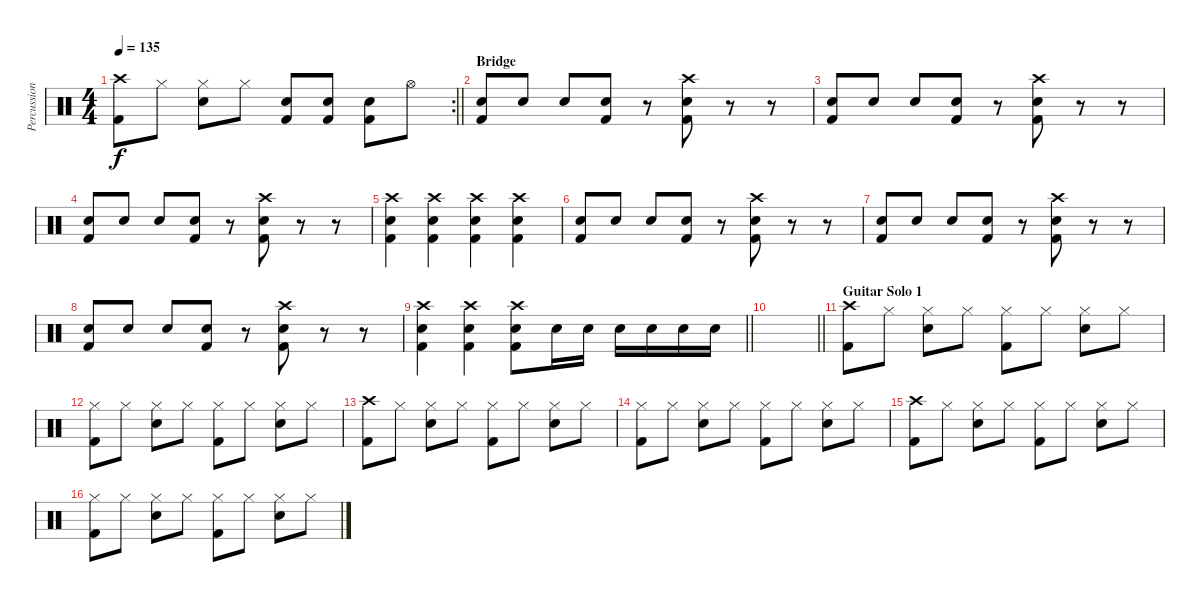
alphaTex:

\track ("Percussion" "Percussion") {instrument percussion}
\staff {score}
\articulation defaults
\rc 2
\ts (4 4)
\tempo 135
\clef neutral
\barLineRight lightlight
\ks c
("Crash high (hit)" "Kick (hit) 2").8{dy f} "Hi-Hat (closed)".8 ("Hi-Hat (closed)" "Electric Snare (hit)").8 "Hi-Hat (closed)".8 ("Electric Snare (hit)" "Kick (hit) 2").8 ("Electric Snare (hit)" "Kick (hit) 2").8 ("Electric Snare (hit)" "Kick (hit) 2").8 "Hi-Hat (open)".8 |
\section ("" "Bridge")
("Electric Snare (hit)" "Kick (hit) 2").8 "Electric Snare (hit)".8 "Electric Snare (hit)".8 ("Electric Snare (hit)" "Kick (hit) 2").8 r.8 ("Crash high (hit)" "Electric Snare (hit)" "Kick (hit) 2").8 r.8 r.8 |
("Electric Snare (hit)" "Kick (hit) 2").8 "Electric Snare (hit)".8 "Electric Snare (hit)".8 ("Electric Snare (hit)" "Kick (hit) 2").8 r.8 ("Crash high (hit)" "Electric Snare (hit)" "Kick (hit) 2").8 r.8 r.8 |
("Electric Snare (hit)" "Kick (hit) 2").8 "Electric Snare (hit)".8 "Electric Snare (hit)".8 ("Electric Snare (hit)" "Kick (hit) 2").8 r.8 ("Crash high (hit)" "Electric Snare (hit)" "Kick (hit) 2").8 r.8 r.8 |
("Crash high (hit)" "Electric Snare (hit)" "Kick (hit) 2").4 ("Crash high (hit)" "Electric Snare (hit)" "Kick (hit) 2").4 ("Crash high (hit)" "Electric Snare (hit)" "Kick (hit) 2").4 ("Crash high (hit)" "Electric Snare (hit)" "Kick (hit) 2").4 |
("Electric Snare (hit)" "Kick (hit) 2").8 "Electric Snare (hit)".8 "Electric Snare (hit)".8 ("Electric Snare (hit)" "Kick (hit) 2").8 r.8 ("Crash high (hit)" "Electric Snare (hit)" "Kick (hit) 2").8 r.8 r.8 |
("Electric Snare (hit)" "Kick (hit) 2").8 "Electric Snare (hit)".8 "Electric Snare (hit)".8 ("Electric Snare (hit)" "Kick (hit) 2").8 r.8 ("Crash high (hit)" "Electric Snare (hit)" "Kick (hit) 2").8 r.8 r.8 |
("Electric Snare (hit)" "Kick (hit) 2").8 "Electric Snare (hit)".8 "Electric Snare (hit)".8 ("Electric Snare (hit)" "Kick (hit) 2").8 r.8 ("Crash high (hit)" "Electric Snare (hit)" "Kick (hit) 2").8 r.8 r.8 |
\barLineRight lightlight
("Crash high (hit)" "Electric Snare (hit)" "Kick (hit) 2").4 ("Crash high (hit)" "Electric Snare (hit)" "Kick (hit) 2").4 ("Crash high (hit)" "Electric Snare (hit)" "Kick (hit) 2").8 "Electric Snare (hit)".16 "Electric Snare (hit)".16 "Electric Snare (hit)".16 "Electric Snare (hit)".16 "Electric Snare (hit)".16 "Electric Snare (hit)".16 |
\section ("" "")
\barLineRight lightlight
|
\section ("" "Guitar Solo 1")
("Crash high (hit)" "Kick (hit) 2").8 "Hi-Hat (closed)".8 ("Hi-Hat (closed)" "Electric Snare (hit)").8 "Hi-Hat (closed)".8 ("Hi-Hat (closed)" "Kick (hit) 2").8 "Hi-Hat (closed)".8 ("Hi-Hat (closed)" "Electric Snare (hit)").8 "Hi-Hat (closed)".8 |
("Hi-Hat (closed)" "Kick (hit) 2").8 "Hi-Hat (closed)".8 ("Hi-Hat (closed)" "Electric Snare (hit)").8 "Hi-Hat (closed)".8 ("Hi-Hat (closed)" "Kick (hit) 2").8 "Hi-Hat (closed)".8 ("Hi-Hat (closed)" "Electric Snare (hit)").8 "Hi-Hat (closed)".8 |
("Crash high (hit)" "Kick (hit) 2").8 "Hi-Hat (closed)".8 ("Hi-Hat (closed)" "Electric Snare (hit)").8 "Hi-Hat (closed)".8 ("Hi-Hat (closed)" "Kick (hit) 2").8 "Hi-Hat (closed)".8 ("Hi-Hat (closed)" "Electric Snare (hit)").8 "Hi-Hat (closed)".8 |
("Hi-Hat (closed)" "Kick (hit) 2").8 "Hi-Hat (closed)".8 ("Hi-Hat (closed)" "Electric Snare (hit)").8 "Hi-Hat (closed)".8 ("Hi-Hat (closed)" "Kick (hit) 2").8 "Hi-Hat (closed)".8 ("Hi-Hat (closed)" "Electric Snare (hit)").8 "Hi-Hat (closed)".8 |
("Crash high (hit)" "Kick (hit) 2").8 "Hi-Hat (closed)".8 ("Hi-Hat (closed)" "Electric Snare (hit)").8 "Hi-Hat (closed)".8 ("Hi-Hat (closed)" "Kick (hit) 2").8 "Hi-Hat (closed)".8 ("Hi-Hat (closed)" "Electric Snare (hit)").8 "Hi-Hat (closed)".8 |
("Hi-Hat (closed)" "Kick (hit) 2").8 "Hi-Hat (closed)".8 ("Hi-Hat (closed)" "Electric Snare (hit)").8 "Hi-Hat (closed)".8 ("Hi-Hat (closed)" "Kick (hit) 2").8 "Hi-Hat (closed)".8 ("Hi-Hat (closed)" "Electric Snare (hit)").8 "Hi-Hat (closed)".8
